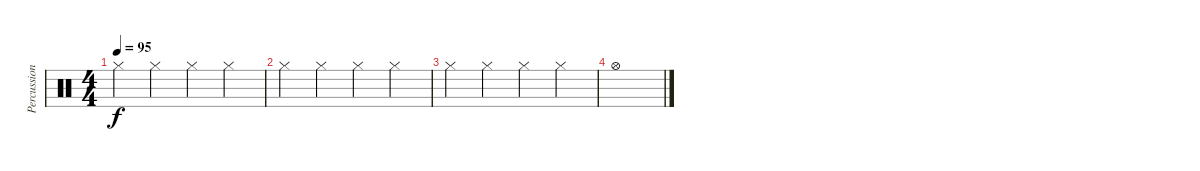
\track ("Percussions" "Percussion") {instrument percussion}
\staff {score}
\articulation defaults
\ts (4 4)
\tempo 95
\clef neutral
\ks c "Hi-Hat (closed)".4{dy f} "Hi-Hat (closed)".4 "Hi-Hat (closed)".4 "Hi-Hat (closed)".4
|
"Hi-Hat (closed)".4 "Hi-Hat (closed)".4 "Hi-Hat (closed)".4 "Hi-Hat (closed)".4 |
"Hi-Hat (closed)".4 "Hi-Hat (closed)".4 "Hi-Hat (closed)".4 "Hi-Hat (closed)".4 |
"Hi-Hat (open)".1
